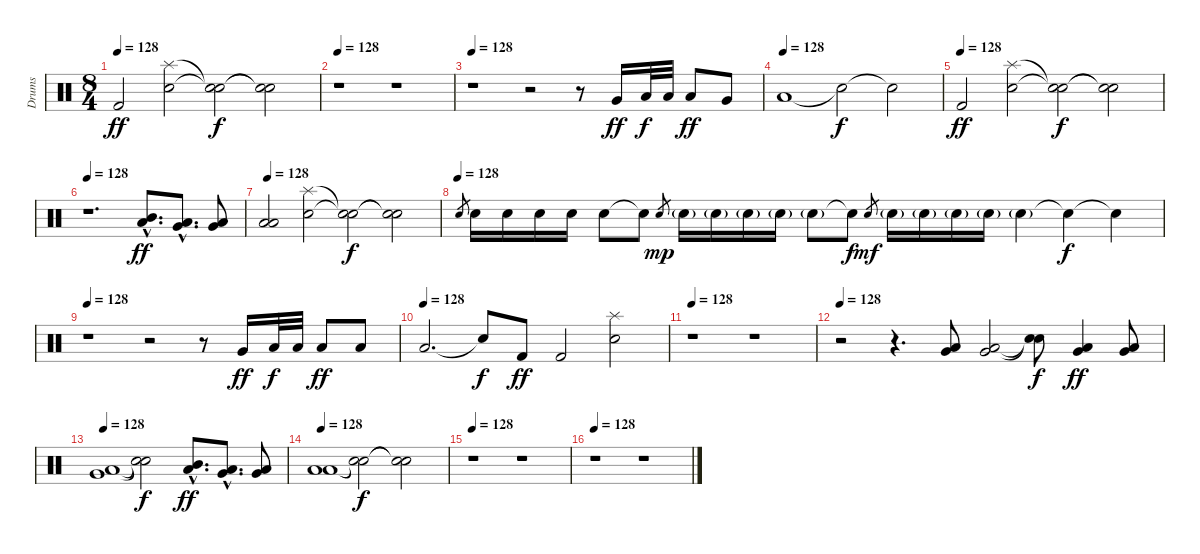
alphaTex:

\track ("Drums" "Drums") {instrument percussion}
\staff {score}
\articulation defaults
\ts (8 4)
\tempo 128
\clef neutral
\ks c "Kick (hit) 2".2{dy ff volume 14}
("Splash (hit)" "Electric Snare (hit)").2 ("Snare (hit)"{t} "Snare (hit)"{t}).2{dy f} ("Snare (hit)"{t} "Snare (hit)"{t}).2 |
\tempo 128
r.1{volume 14} r.1 |
\tempo 128
r.1{volume 14} r.2 r.8 "Very Low Tom (hit)".16{dy ff} "Low Floor Tom (hit)".32{dy f} "Low Floor Tom (hit)".32 "Low Floor Tom (hit)".8{dy ff} "Very Low Tom (hit)".8 |
\tempo (128)
"Low Floor Tom (hit)".1{volume 14} "Snare (hit)"{t}.2{dy f} "Snare (hit)"{t}.2 |
\tempo (128)
"Kick (hit) 2".2{dy ff volume 14} ("Splash (hit)" "Electric Snare (hit)").2 ("Snare (hit)"{t} "Snare (hit)"{t}).2{dy f} ("Snare (hit)"{t} "Snare (hit)"{t}).2 |
\tempo 128
r.1{d volume 14} ("Mid Tom (hit)"{hac} "Low Tom (hit)"{hac}).8{d dy ff} ("Low Tom (hit)"{hac} "Very Low Tom (hit)"{hac}).8{d} ("Very Low Tom (hit)" "Low Floor Tom (hit)").8 |
\tempo 128
("Low Floor Tom (hit)" "Low Floor Tom (hit)").2{volume 14} ("Splash (hit)" "Electric Snare (hit)").2 ("Snare (hit)"{t} "Snare (hit)"{t}).2{dy f} ("Snare (hit)"{t} "Snare (hit)"{t}).2 |
\tempo (128)
"Electric Snare (hit)".8{gr} "Electric Snare (hit)".16{volume 14} "Electric Snare (hit)".16 "Electric Snare (hit)".16 "Electric Snare (hit)".16 "Electric Snare (hit)".8 "Snare (hit)"{t}.8{balance 1} "Electric Snare (hit)".8{gr dy mp} "Electric Snare (hit)"{g}.16 "Electric Snare (hit)"{g}.16 "Electric Snare (hit)"{g}.16 "Electric Snare (hit)"{g}.16 "Electric Snare (hit)"{g}.8 "Snare (hit)"{t}.8{dy f balance 15} "Electric Snare (hit)".8{gr dy mf} "Electric Snare (hit)"{g}.16 "Electric Snare (hit)"{g}.16 "Electric Snare (hit)"{g}.16 "Electric Snare (hit)"{g}.16 "Electric Snare (hit)"{g}.4 "Snare (hit)"{t}.4{dy f} "Snare (hit)"{t}.4 |
\tempo 128
r.1{volume 14 balance 8} r.2 r.8 "Very Low Tom (hit)".16{dy ff} "Low Floor Tom (hit)".32{dy f} "Low Floor Tom (hit)".32 "Low Floor Tom (hit)".8{dy ff} "Low Floor Tom (hit)".8 |
\tempo (128)
"Low Floor Tom (hit)".2{d volume 14} "Snare (hit)"{t}.8{dy f} "Kick (hit) 2".8{dy ff} "Kick (hit) 2".2 ("Splash (hit)" "Electric Snare (hit)").2 |
\tempo 128
r.1{volume 14} r.1 |
\tempo 128
r.2{volume 14} r.4{d} ("Low Tom (hit)" "Very Low Tom (hit)").8 ("Low Tom (hit)" "Very Low Tom (hit)").2 ("Snare (hit)"{t} "Snare (hit)"{t}).8{dy f} ("Very Low Tom (hit)" "Low Floor Tom (hit)").4{dy ff} ("Very Low Tom (hit)" "Low Floor Tom (hit)").8 |
\tempo 128
("Very Low Tom (hit)" "Low Floor Tom (hit)").1{volume 14} ("Snare (hit)"{t} "Snare (hit)"{t}).2{dy f} ("Mid Tom (hit)"{hac} "Low Tom (hit)"{hac}).8{d dy ff} ("Low Tom (hit)"{hac} "Very Low Tom (hit)"{hac}).8{d} ("Very Low Tom (hit)" "Low Floor Tom (hit)").8 |
\tempo 128
("Low Floor Tom (hit)" "Low Floor Tom (hit)").1{volume 14} ("Snare (hit)"{t} "Snare (hit)"{t}).2{dy f} ("Snare (hit)"{t} "Snare (hit)"{t}).2 |
\tempo 128
r.1{volume 14} r.1 |
\tempo 128
r.1{volume 14} r.1
